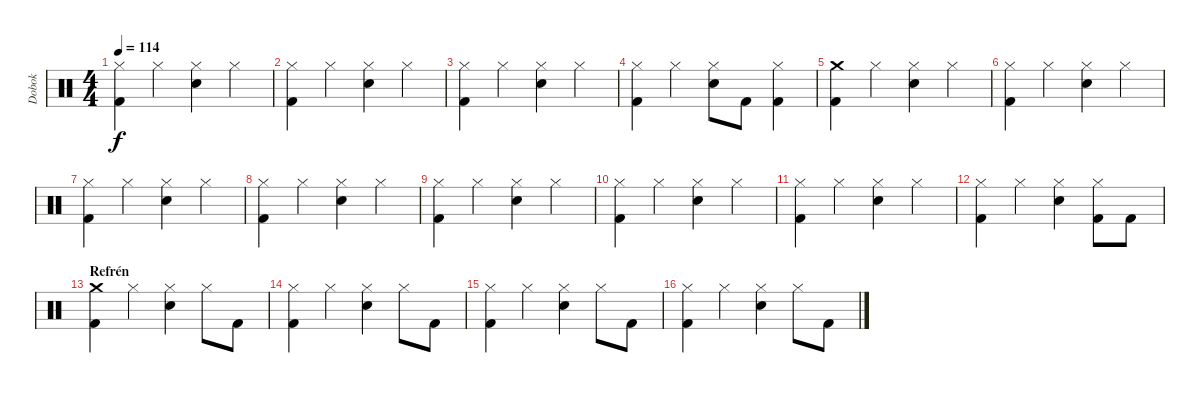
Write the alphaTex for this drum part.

\track ("Dobok" "Dobok") {instrument percussion}
\staff {score}
\articulation defaults
\ts (4 4)
\tempo 114
\clef neutral
\ks c
("Hi-Hat (closed)" "Kick (hit) 2").4{dy f} "Hi-Hat (closed)".4 ("Hi-Hat (closed)" "Snare (hit) 2").4 "Hi-Hat (closed)".4 |
("Hi-Hat (closed)" "Kick (hit) 2").4 "Hi-Hat (closed)".4 ("Hi-Hat (closed)" "Snare (hit) 2").4 "Hi-Hat (closed)".4 |
("Hi-Hat (closed)" "Kick (hit) 2").4 "Hi-Hat (closed)".4 ("Hi-Hat (closed)" "Snare (hit) 2").4 "Hi-Hat (closed)".4 |
("Hi-Hat (closed)" "Kick (hit) 2").4 "Hi-Hat (closed)".4 ("Hi-Hat (closed)" "Snare (hit) 2").8 "Kick (hit) 2".8 ("Hi-Hat (closed)" "Kick (hit) 2").4 |
("Crash medium (hit)" "Kick (hit) 2").4 "Hi-Hat (closed)".4 ("Hi-Hat (closed)" "Snare (hit) 2").4 "Hi-Hat (closed)".4 |
("Hi-Hat (closed)" "Kick (hit) 2").4 "Hi-Hat (closed)".4 ("Hi-Hat (closed)" "Snare (hit) 2").4 "Hi-Hat (closed)".4 |
("Hi-Hat (closed)" "Kick (hit) 2").4 "Hi-Hat (closed)".4 ("Hi-Hat (closed)" "Snare (hit) 2").4 "Hi-Hat (closed)".4 |
("Hi-Hat (closed)" "Kick (hit) 2").4 "Hi-Hat (closed)".4 ("Hi-Hat (closed)" "Snare (hit) 2").4 "Hi-Hat (closed)".4 |
("Hi-Hat (closed)" "Kick (hit) 2").4 "Hi-Hat (closed)".4 ("Hi-Hat (closed)" "Snare (hit) 2").4 "Hi-Hat (closed)".4 |
("Hi-Hat (closed)" "Kick (hit) 2").4 "Hi-Hat (closed)".4 ("Hi-Hat (closed)" "Snare (hit) 2").4 "Hi-Hat (closed)".4 |
("Hi-Hat (closed)" "Kick (hit) 2").4 "Hi-Hat (closed)".4 ("Hi-Hat (closed)" "Snare (hit) 2").4 "Hi-Hat (closed)".4 |
("Hi-Hat (closed)" "Kick (hit) 2").4 "Hi-Hat (closed)".4 ("Hi-Hat (closed)" "Snare (hit) 2").4 ("Hi-Hat (closed)" "Kick (hit) 2").8 "Kick (hit) 2".8 |
\section ("" "Refrén")
("Crash medium (hit)" "Kick (hit) 2").4 "Hi-Hat (closed)".4 ("Hi-Hat (closed)" "Snare (hit) 2").4 "Hi-Hat (closed)".8 "Kick (hit) 2".8 |
("Hi-Hat (closed)" "Kick (hit) 2").4 "Hi-Hat (closed)".4 ("Hi-Hat (closed)" "Snare (hit) 2").4 "Hi-Hat (closed)".8 "Kick (hit) 2".8 |
("Hi-Hat (closed)" "Kick (hit) 2").4 "Hi-Hat (closed)".4 ("Hi-Hat (closed)" "Snare (hit) 2").4 "Hi-Hat (closed)".8 "Kick (hit) 2".8 |
("Hi-Hat (closed)" "Kick (hit) 2").4 "Hi-Hat (closed)".4 ("Hi-Hat (closed)" "Snare (hit) 2").4 "Hi-Hat (closed)".8 "Kick (hit) 2".8
